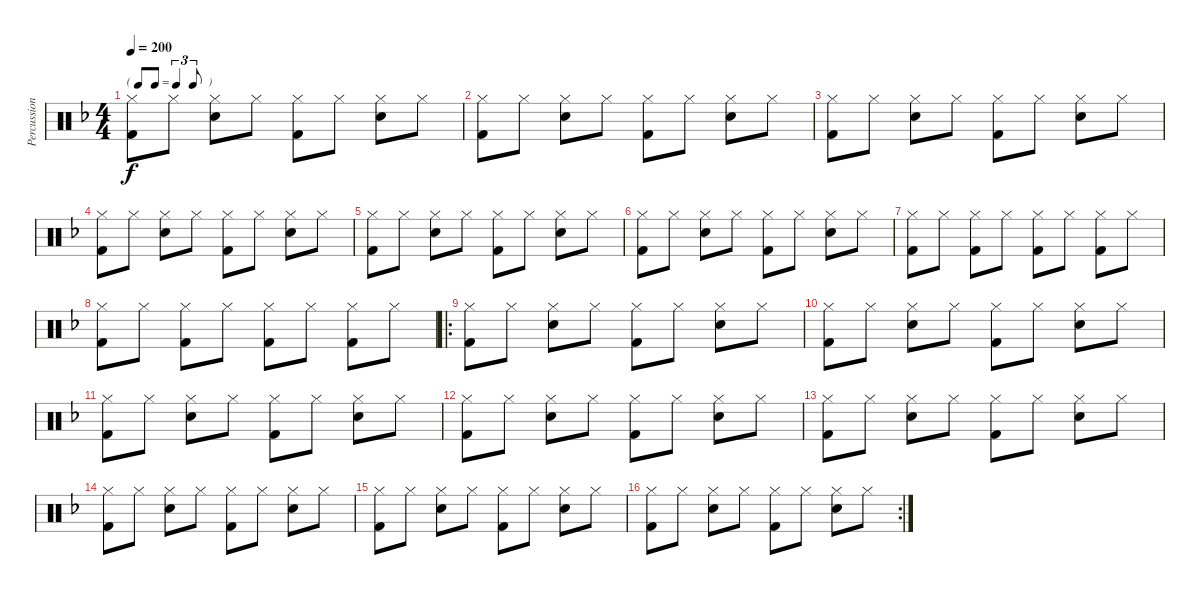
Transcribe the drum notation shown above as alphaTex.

\track ("Percussion" "Percussion") {instrument percussion}
\staff {score}
\articulation defaults
\ts (4 4)
\tf triplet8th
\tempo 200
\clef neutral
\ks f
("Hi-Hat (closed)" "Kick (hit) 2").8{dy f} "Hi-Hat (closed)".8 ("Hi-Hat (closed)" "Electric Snare (hit)").8 "Hi-Hat (closed)".8 ("Hi-Hat (closed)" "Kick (hit) 2").8 "Hi-Hat (closed)".8 ("Hi-Hat (closed)" "Electric Snare (hit)").8 "Hi-Hat (closed)".8 |
("Hi-Hat (closed)" "Kick (hit) 2").8 "Hi-Hat (closed)".8 ("Hi-Hat (closed)" "Electric Snare (hit)").8 "Hi-Hat (closed)".8 ("Hi-Hat (closed)" "Kick (hit) 2").8 "Hi-Hat (closed)".8 ("Hi-Hat (closed)" "Electric Snare (hit)").8 "Hi-Hat (closed)".8 |
("Hi-Hat (closed)" "Kick (hit) 2").8 "Hi-Hat (closed)".8 ("Hi-Hat (closed)" "Electric Snare (hit)").8 "Hi-Hat (closed)".8 ("Hi-Hat (closed)" "Kick (hit) 2").8 "Hi-Hat (closed)".8 ("Hi-Hat (closed)" "Electric Snare (hit)").8 "Hi-Hat (closed)".8 |
("Hi-Hat (closed)" "Kick (hit) 2").8 "Hi-Hat (closed)".8 ("Hi-Hat (closed)" "Electric Snare (hit)").8 "Hi-Hat (closed)".8 ("Hi-Hat (closed)" "Kick (hit) 2").8 "Hi-Hat (closed)".8 ("Hi-Hat (closed)" "Electric Snare (hit)").8 "Hi-Hat (closed)".8 |
("Hi-Hat (closed)" "Kick (hit) 2").8 "Hi-Hat (closed)".8 ("Hi-Hat (closed)" "Electric Snare (hit)").8 "Hi-Hat (closed)".8 ("Hi-Hat (closed)" "Kick (hit) 2").8 "Hi-Hat (closed)".8 ("Hi-Hat (closed)" "Electric Snare (hit)").8 "Hi-Hat (closed)".8 |
("Hi-Hat (closed)" "Kick (hit) 2").8 "Hi-Hat (closed)".8 ("Hi-Hat (closed)" "Electric Snare (hit)").8 "Hi-Hat (closed)".8 ("Hi-Hat (closed)" "Kick (hit) 2").8 "Hi-Hat (closed)".8 ("Hi-Hat (closed)" "Electric Snare (hit)").8 "Hi-Hat (closed)".8 |
("Hi-Hat (closed)" "Kick (hit) 2").8 "Hi-Hat (closed)".8 ("Hi-Hat (closed)" "Kick (hit) 2").8 "Hi-Hat (closed)".8 ("Hi-Hat (closed)" "Kick (hit) 2").8 "Hi-Hat (closed)".8 ("Hi-Hat (closed)" "Kick (hit) 2").8 "Hi-Hat (closed)".8 |
("Hi-Hat (closed)" "Kick (hit) 2").8 "Hi-Hat (closed)".8 ("Hi-Hat (closed)" "Kick (hit) 2").8 "Hi-Hat (closed)".8 ("Hi-Hat (closed)" "Kick (hit) 2").8 "Hi-Hat (closed)".8 ("Hi-Hat (closed)" "Kick (hit) 2").8 "Hi-Hat (closed)".8 |
\ro
("Hi-Hat (closed)" "Kick (hit) 2").8 "Hi-Hat (closed)".8 ("Hi-Hat (closed)" "Electric Snare (hit)").8 "Hi-Hat (closed)".8 ("Hi-Hat (closed)" "Kick (hit) 2").8 "Hi-Hat (closed)".8 ("Hi-Hat (closed)" "Electric Snare (hit)").8 "Hi-Hat (closed)".8 |
("Hi-Hat (closed)" "Kick (hit) 2").8 "Hi-Hat (closed)".8 ("Hi-Hat (closed)" "Electric Snare (hit)").8 "Hi-Hat (closed)".8 ("Hi-Hat (closed)" "Kick (hit) 2").8 "Hi-Hat (closed)".8 ("Hi-Hat (closed)" "Electric Snare (hit)").8 "Hi-Hat (closed)".8 |
("Hi-Hat (closed)" "Kick (hit) 2").8 "Hi-Hat (closed)".8 ("Hi-Hat (closed)" "Electric Snare (hit)").8 "Hi-Hat (closed)".8 ("Hi-Hat (closed)" "Kick (hit) 2").8 "Hi-Hat (closed)".8 ("Hi-Hat (closed)" "Electric Snare (hit)").8 "Hi-Hat (closed)".8 |
("Hi-Hat (closed)" "Kick (hit) 2").8 "Hi-Hat (closed)".8 ("Hi-Hat (closed)" "Electric Snare (hit)").8 "Hi-Hat (closed)".8 ("Hi-Hat (closed)" "Kick (hit) 2").8 "Hi-Hat (closed)".8 ("Hi-Hat (closed)" "Electric Snare (hit)").8 "Hi-Hat (closed)".8 |
("Hi-Hat (closed)" "Kick (hit) 2").8 "Hi-Hat (closed)".8 ("Hi-Hat (closed)" "Electric Snare (hit)").8 "Hi-Hat (closed)".8 ("Hi-Hat (closed)" "Kick (hit) 2").8 "Hi-Hat (closed)".8 ("Hi-Hat (closed)" "Electric Snare (hit)").8 "Hi-Hat (closed)".8 |
("Hi-Hat (closed)" "Kick (hit) 2").8 "Hi-Hat (closed)".8 ("Hi-Hat (closed)" "Electric Snare (hit)").8 "Hi-Hat (closed)".8 ("Hi-Hat (closed)" "Kick (hit) 2").8 "Hi-Hat (closed)".8 ("Hi-Hat (closed)" "Electric Snare (hit)").8 "Hi-Hat (closed)".8 |
("Hi-Hat (closed)" "Kick (hit) 2").8 "Hi-Hat (closed)".8 ("Hi-Hat (closed)" "Electric Snare (hit)").8 "Hi-Hat (closed)".8 ("Hi-Hat (closed)" "Kick (hit) 2").8 "Hi-Hat (closed)".8 ("Hi-Hat (closed)" "Electric Snare (hit)").8 "Hi-Hat (closed)".8 |
\rc 2
("Hi-Hat (closed)" "Kick (hit) 2").8 "Hi-Hat (closed)".8 ("Hi-Hat (closed)" "Electric Snare (hit)").8 "Hi-Hat (closed)".8 ("Hi-Hat (closed)" "Kick (hit) 2").8 "Hi-Hat (closed)".8 ("Hi-Hat (closed)" "Electric Snare (hit)").8 "Hi-Hat (closed)".8
